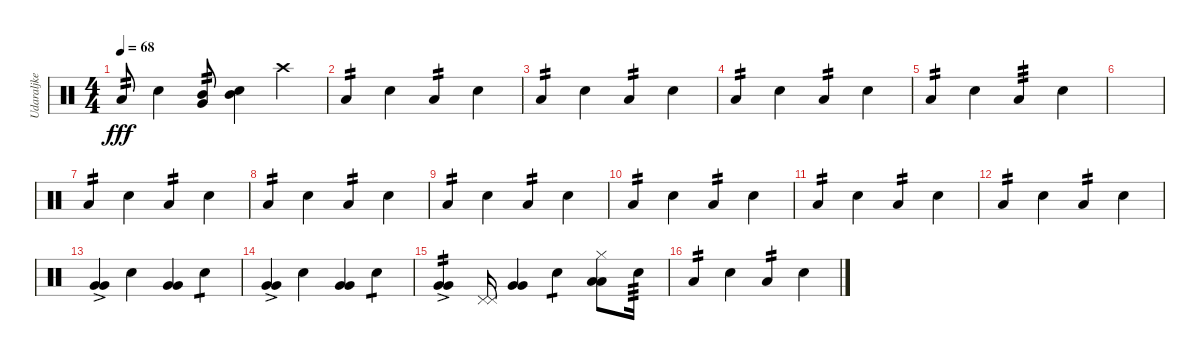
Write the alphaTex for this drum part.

\track ("Udaraljke" "Udaraljke") {instrument percussion}
\staff {score}
\articulation defaults
\ts (4 4)
\tempo 68
\clef neutral
\ks c "Low Tom (hit)".8{tp 2 dy fff} "Electric Snare (hit)".4
("Mid Tom (hit)" "Very Low Tom (hit)").8{tp 2} ("Mid Tom (hit)" "Electric Snare (hit)").4 "Crash high (hit)".4 |
"Low Tom (hit)".4{tp 2} "Electric Snare (hit)".4 "Low Tom (hit)".4{tp 2} "Electric Snare (hit)".4 |
"Low Tom (hit)".4{tp 2} "Electric Snare (hit)".4 "Low Tom (hit)".4{tp 2} "Electric Snare (hit)".4 |
"Low Tom (hit)".4{tp 2} "Electric Snare (hit)".4 "Low Tom (hit)".4{tp 2} "Electric Snare (hit)".4 |
"Low Tom (hit)".4{tp 2} "Electric Snare (hit)".4 "Low Tom (hit)".4{tp 3} "Electric Snare (hit)".4 |
|
"Low Tom (hit)".4{tp 2} "Electric Snare (hit)".4 "Low Tom (hit)".4{tp 2} "Electric Snare (hit)".4 |
"Low Tom (hit)".4{tp 2} "Electric Snare (hit)".4 "Low Tom (hit)".4{tp 2} "Electric Snare (hit)".4 |
"Low Tom (hit)".4{tp 2} "Electric Snare (hit)".4 "Low Tom (hit)".4{tp 2} "Electric Snare (hit)".4 |
"Low Tom (hit)".4{tp 2} "Electric Snare (hit)".4 "Low Tom (hit)".4{tp 2} "Electric Snare (hit)".4 |
"Low Tom (hit)".4{tp 2} "Electric Snare (hit)".4 "Low Tom (hit)".4{tp 2} "Electric Snare (hit)".4 |
"Low Tom (hit)".4{tp 2} "Electric Snare (hit)".4 "Low Tom (hit)".4{tp 2} "Electric Snare (hit)".4 |
("Very Low Tom (hit)"{ac} "Very Low Tom (hit)").4 "Electric Snare (hit)".4 ("Very Low Tom (hit)" "Very Low Tom (hit)").4 "Electric Snare (hit)".4{tp 1} |
("Very Low Tom (hit)"{ac} "Very Low Tom (hit)").4 "Electric Snare (hit)".4 ("Very Low Tom (hit)" "Very Low Tom (hit)").4 "Electric Snare (hit)".4{tp 1} |
("Very Low Tom (hit)"{ac} "Very Low Tom (hit)").4{tp 2} ("Pedal Hi-Hat (hit)" "Pedal Hi-Hat (hit)").16 ("Very Low Tom (hit)" "Very Low Tom (hit)").4 "Electric Snare (hit)".4{tp 1} ("Hi-Hat (closed)" "Low Tom (hit)" "Low Tom (hit)").8 "Electric Snare (hit)".16{tp 3} |
"Low Tom (hit)".4{tp 2} "Electric Snare (hit)".4 "Low Tom (hit)".4{tp 2} "Electric Snare (hit)".4
